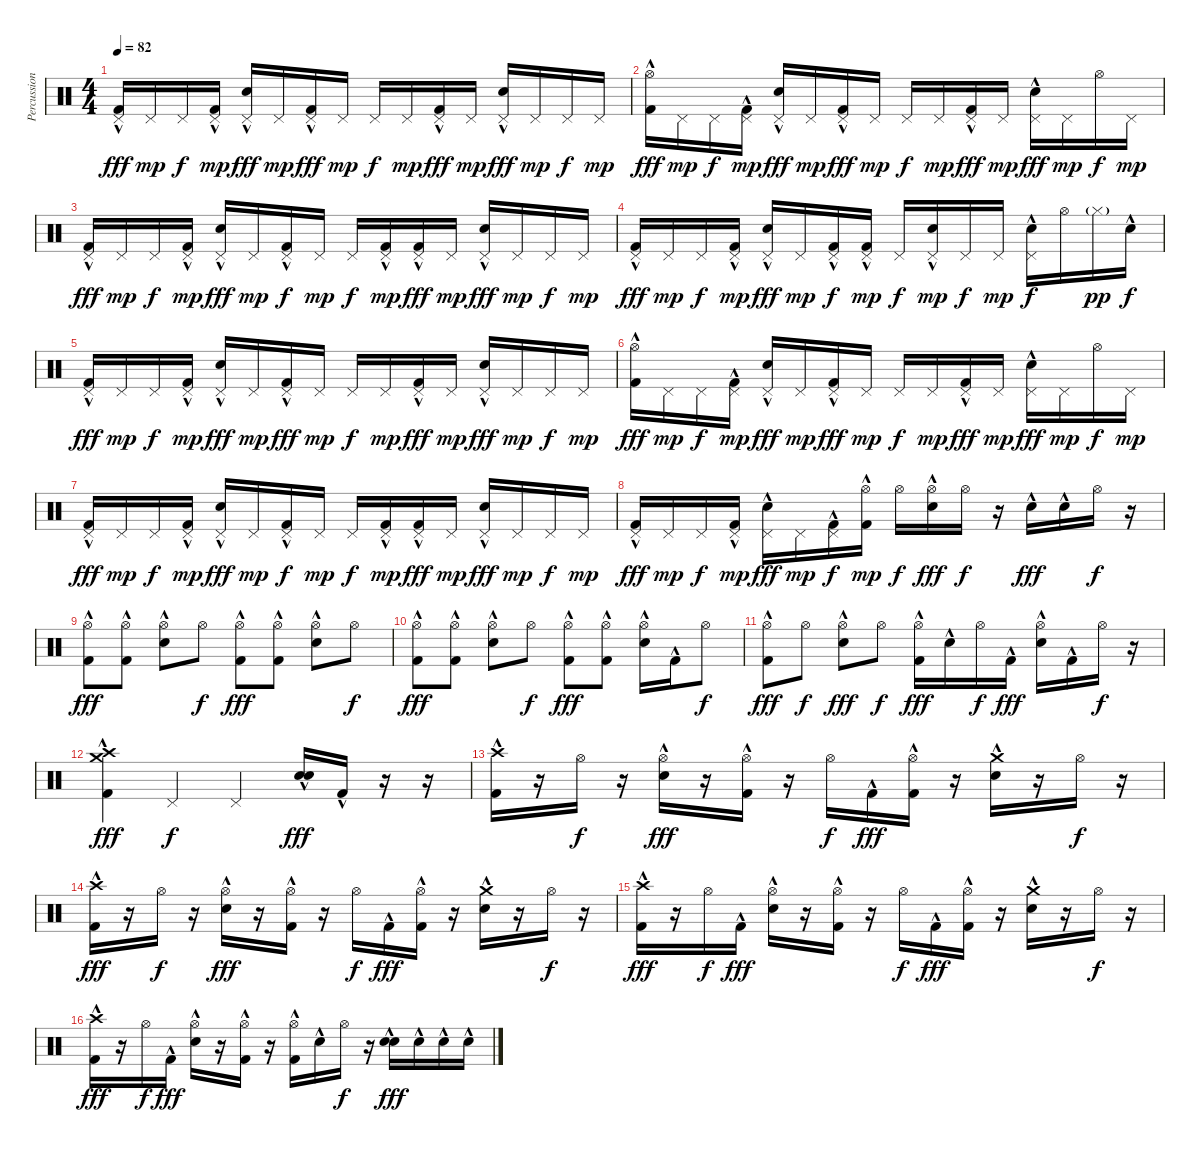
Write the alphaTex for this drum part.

\track ("Percussion" "Percussion") {instrument percussion}
\staff {score}
\articulation defaults
\ts (4 4)
\tempo 82
\clef neutral
\ks c
("Kick (hit) 2"{hac} "Pedal Hi-Hat (hit)").16{dy fff} "Pedal Hi-Hat (hit)".16{dy mp} "Pedal Hi-Hat (hit)".16{dy f} ("Kick (hit) 2"{hac} "Pedal Hi-Hat (hit)").16{dy mp} ("Electric Snare (hit)"{hac} "Pedal Hi-Hat (hit)").16{dy fff} "Pedal Hi-Hat (hit)".16{dy mp} ("Kick (hit) 2"{hac} "Pedal Hi-Hat (hit)").16{dy fff} "Pedal Hi-Hat (hit)".16{dy mp} "Pedal Hi-Hat (hit)".16{dy f} "Pedal Hi-Hat (hit)".16{dy mp} ("Kick (hit) 2"{hac} "Pedal Hi-Hat (hit)").16{dy fff} "Pedal Hi-Hat (hit)".16{dy mp} ("Electric Snare (hit)"{hac} "Pedal Hi-Hat (hit)").16{dy fff} "Pedal Hi-Hat (hit)".16{dy mp} "Pedal Hi-Hat (hit)".16{dy f} "Pedal Hi-Hat (hit)".16{dy mp} |
("Kick (hit) 2"{hac} "Hi-Hat (open)").16{dy fff} "Pedal Hi-Hat (hit)".16{dy mp} "Pedal Hi-Hat (hit)".16{dy f} ("Kick (hit) 2"{hac} "Pedal Hi-Hat (hit)").16{dy mp} ("Electric Snare (hit)"{hac} "Pedal Hi-Hat (hit)").16{dy fff} "Pedal Hi-Hat (hit)".16{dy mp} ("Kick (hit) 2"{hac} "Pedal Hi-Hat (hit)").16{dy fff} "Pedal Hi-Hat (hit)".16{dy mp} "Pedal Hi-Hat (hit)".16{dy f} "Pedal Hi-Hat (hit)".16{dy mp} ("Kick (hit) 2"{hac} "Pedal Hi-Hat (hit)").16{dy fff} "Pedal Hi-Hat (hit)".16{dy mp} ("Electric Snare (hit)"{hac} "Pedal Hi-Hat (hit)").16{dy fff} "Pedal Hi-Hat (hit)".16{dy mp} "Hi-Hat (open)".16{dy f} "Pedal Hi-Hat (hit)".16{dy mp} |
("Kick (hit) 2"{hac} "Pedal Hi-Hat (hit)").16{dy fff} "Pedal Hi-Hat (hit)".16{dy mp} "Pedal Hi-Hat (hit)".16{dy f} ("Kick (hit) 2"{hac} "Pedal Hi-Hat (hit)").16{dy mp} ("Electric Snare (hit)"{hac} "Pedal Hi-Hat (hit)").16{dy fff} "Pedal Hi-Hat (hit)".16{dy mp} ("Kick (hit) 2"{hac} "Pedal Hi-Hat (hit)").16{dy f} "Pedal Hi-Hat (hit)".16{dy mp} "Pedal Hi-Hat (hit)".16{dy f} ("Kick (hit) 2"{hac} "Pedal Hi-Hat (hit)").16{dy mp} ("Kick (hit) 2"{hac} "Pedal Hi-Hat (hit)").16{dy fff} "Pedal Hi-Hat (hit)".16{dy mp} ("Electric Snare (hit)"{hac} "Pedal Hi-Hat (hit)").16{dy fff} "Pedal Hi-Hat (hit)".16{dy mp} "Pedal Hi-Hat (hit)".16{dy f} "Pedal Hi-Hat (hit)".16{dy mp} |
("Kick (hit) 2"{hac} "Pedal Hi-Hat (hit)").16{dy fff} "Pedal Hi-Hat (hit)".16{dy mp} "Pedal Hi-Hat (hit)".16{dy f} ("Kick (hit) 2"{hac} "Pedal Hi-Hat (hit)").16{dy mp} ("Electric Snare (hit)"{hac} "Pedal Hi-Hat (hit)").16{dy fff} "Pedal Hi-Hat (hit)".16{dy mp} ("Kick (hit) 2"{hac} "Pedal Hi-Hat (hit)").16{dy f} ("Kick (hit) 2"{hac} "Pedal Hi-Hat (hit)").16{dy mp} "Pedal Hi-Hat (hit)".16{dy f} ("Electric Snare (hit)"{hac} "Pedal Hi-Hat (hit)").16{dy mp} "Pedal Hi-Hat (hit)".16{dy f} "Pedal Hi-Hat (hit)".16{dy mp} ("Electric Snare (hit)"{hac} "Pedal Hi-Hat (hit)").16{dy f} "Hi-Hat (open)".16 "Hi-Hat (closed)"{g}.16{dy pp} "Electric Snare (hit)"{hac}.16{dy f} |
("Kick (hit) 2"{hac} "Pedal Hi-Hat (hit)").16{dy fff} "Pedal Hi-Hat (hit)".16{dy mp} "Pedal Hi-Hat (hit)".16{dy f} ("Kick (hit) 2"{hac} "Pedal Hi-Hat (hit)").16{dy mp} ("Electric Snare (hit)"{hac} "Pedal Hi-Hat (hit)").16{dy fff} "Pedal Hi-Hat (hit)".16{dy mp} ("Kick (hit) 2"{hac} "Pedal Hi-Hat (hit)").16{dy fff} "Pedal Hi-Hat (hit)".16{dy mp} "Pedal Hi-Hat (hit)".16{dy f} "Pedal Hi-Hat (hit)".16{dy mp} ("Kick (hit) 2"{hac} "Pedal Hi-Hat (hit)").16{dy fff} "Pedal Hi-Hat (hit)".16{dy mp} ("Electric Snare (hit)"{hac} "Pedal Hi-Hat (hit)").16{dy fff} "Pedal Hi-Hat (hit)".16{dy mp} "Pedal Hi-Hat (hit)".16{dy f} "Pedal Hi-Hat (hit)".16{dy mp} |
("Kick (hit) 2"{hac} "Hi-Hat (open)").16{dy fff} "Pedal Hi-Hat (hit)".16{dy mp} "Pedal Hi-Hat (hit)".16{dy f} ("Kick (hit) 2"{hac} "Pedal Hi-Hat (hit)").16{dy mp} ("Electric Snare (hit)"{hac} "Pedal Hi-Hat (hit)").16{dy fff} "Pedal Hi-Hat (hit)".16{dy mp} ("Kick (hit) 2"{hac} "Pedal Hi-Hat (hit)").16{dy fff} "Pedal Hi-Hat (hit)".16{dy mp} "Pedal Hi-Hat (hit)".16{dy f} "Pedal Hi-Hat (hit)".16{dy mp} ("Kick (hit) 2"{hac} "Pedal Hi-Hat (hit)").16{dy fff} "Pedal Hi-Hat (hit)".16{dy mp} ("Electric Snare (hit)"{hac} "Pedal Hi-Hat (hit)").16{dy fff} "Pedal Hi-Hat (hit)".16{dy mp} "Hi-Hat (open)".16{dy f} "Pedal Hi-Hat (hit)".16{dy mp} |
("Kick (hit) 2"{hac} "Pedal Hi-Hat (hit)").16{dy fff} "Pedal Hi-Hat (hit)".16{dy mp} "Pedal Hi-Hat (hit)".16{dy f} ("Kick (hit) 2"{hac} "Pedal Hi-Hat (hit)").16{dy mp} ("Electric Snare (hit)"{hac} "Pedal Hi-Hat (hit)").16{dy fff} "Pedal Hi-Hat (hit)".16{dy mp} ("Kick (hit) 2"{hac} "Pedal Hi-Hat (hit)").16{dy f} "Pedal Hi-Hat (hit)".16{dy mp} "Pedal Hi-Hat (hit)".16{dy f} ("Kick (hit) 2"{hac} "Pedal Hi-Hat (hit)").16{dy mp} ("Kick (hit) 2"{hac} "Pedal Hi-Hat (hit)").16{dy fff} "Pedal Hi-Hat (hit)".16{dy mp} ("Electric Snare (hit)"{hac} "Pedal Hi-Hat (hit)").16{dy fff} "Pedal Hi-Hat (hit)".16{dy mp} "Pedal Hi-Hat (hit)".16{dy f} "Pedal Hi-Hat (hit)".16{dy mp} |
("Kick (hit) 2"{hac} "Pedal Hi-Hat (hit)").16{dy fff} "Pedal Hi-Hat (hit)".16{dy mp} "Pedal Hi-Hat (hit)".16{dy f} ("Kick (hit) 2"{hac} "Pedal Hi-Hat (hit)").16{dy mp} ("Electric Snare (hit)"{hac} "Pedal Hi-Hat (hit)").16{dy fff} "Pedal Hi-Hat (hit)".16{dy mp} ("Kick (hit) 2"{hac} "Pedal Hi-Hat (hit)").16{dy f} ("Kick (hit) 2"{hac} "Hi-Hat (open)").16{dy mp} "Hi-Hat (open)".16{dy f} ("Electric Snare (hit)"{hac} "Hi-Hat (open)").16{dy fff} "Hi-Hat (open)".16{dy f} r.16 "Electric Snare (hit)"{hac}.16{dy fff} "Electric Snare (hit)"{hac}.16 "Hi-Hat (open)".16{dy f} r.16 |
("Kick (hit) 2"{hac} "Hi-Hat (open)").8{dy fff} ("Kick (hit) 2"{hac} "Hi-Hat (open)").8 ("Electric Snare (hit)"{hac} "Hi-Hat (open)").8 "Hi-Hat (open)".8{dy f} ("Kick (hit) 2"{hac} "Hi-Hat (open)").8{dy fff} ("Kick (hit) 2"{hac} "Hi-Hat (open)").8 ("Electric Snare (hit)"{hac} "Hi-Hat (open)").8 "Hi-Hat (open)".8{dy f} |
("Kick (hit) 2"{hac} "Hi-Hat (open)").8{dy fff} ("Kick (hit) 2"{hac} "Hi-Hat (open)").8 ("Electric Snare (hit)"{hac} "Hi-Hat (open)").8 "Hi-Hat (open)".8{dy f} ("Kick (hit) 2"{hac} "Hi-Hat (open)").8{dy fff} ("Kick (hit) 2"{hac} "Hi-Hat (open)").8 ("Electric Snare (hit)"{hac} "Hi-Hat (open)").16 "Kick (hit) 2"{hac}.16 "Hi-Hat (open)".8{dy f} |
("Kick (hit) 2"{hac} "Hi-Hat (open)").8{dy fff} "Hi-Hat (open)".8{dy f} ("Electric Snare (hit)"{hac} "Hi-Hat (open)").8{dy fff} "Hi-Hat (open)".8{dy f} ("Kick (hit) 2"{hac} "Hi-Hat (open)").16{dy fff} "Electric Snare (hit)"{hac}.16 "Hi-Hat (open)".16{dy f} "Kick (hit) 2"{hac}.16{dy fff} ("Electric Snare (hit)"{hac} "Hi-Hat (open)").16 "Kick (hit) 2"{hac}.16 "Hi-Hat (open)".16{dy f} r.16 |
("Kick (hit) 2"{hac} "Crash high (hit)" "Crash medium (hit)").4{dy fff} "Pedal Hi-Hat (hit)".4{dy f} "Pedal Hi-Hat (hit)".4 ("Electric Snare (hit)"{hac} "Electric Snare (hit)"{hac}).16{bd 240 dy fff} "Kick (hit) 2"{hac}.16 r.16 r.16 |
("Kick (hit) 2"{hac} "Crash high (hit)").16 r.16 "Hi-Hat (open)".16{dy f} r.16 ("Electric Snare (hit)"{hac} "Hi-Hat (open)").16{dy fff} r.16 ("Kick (hit) 2"{hac} "Hi-Hat (open)").16 r.16 "Hi-Hat (open)".16{dy f} "Kick (hit) 2"{hac}.16{dy fff} ("Kick (hit) 2"{hac} "Hi-Hat (open)").16 r.16 ("Electric Snare (hit)"{hac} "Crash medium (hit)").16 r.16 "Hi-Hat (open)".16{dy f} r.16 |
("Kick (hit) 2"{hac} "Crash high (hit)").16{dy fff} r.16 "Hi-Hat (open)".16{dy f} r.16 ("Electric Snare (hit)"{hac} "Hi-Hat (open)").16{dy fff} r.16 ("Kick (hit) 2"{hac} "Hi-Hat (open)").16 r.16 "Hi-Hat (open)".16{dy f} "Kick (hit) 2"{hac}.16{dy fff} ("Kick (hit) 2"{hac} "Hi-Hat (open)").16 r.16 ("Electric Snare (hit)"{hac} "Crash medium (hit)").16 r.16 "Hi-Hat (open)".16{dy f} r.16 |
("Kick (hit) 2"{hac} "Crash high (hit)").16{dy fff} r.16 "Hi-Hat (open)".16{dy f} "Kick (hit) 2"{hac}.16{dy fff} ("Electric Snare (hit)"{hac} "Hi-Hat (open)").16 r.16 ("Kick (hit) 2"{hac} "Hi-Hat (open)").16 r.16 "Hi-Hat (open)".16{dy f} "Kick (hit) 2"{hac}.16{dy fff} ("Kick (hit) 2"{hac} "Hi-Hat (open)").16 r.16 ("Electric Snare (hit)"{hac} "Crash medium (hit)").16 r.16 "Hi-Hat (open)".16{dy f} r.16 |
("Kick (hit) 2"{hac} "Crash high (hit)").16{dy fff} r.16 "Hi-Hat (open)".16{dy f} "Kick (hit) 2"{hac}.16{dy fff} ("Electric Snare (hit)"{hac} "Hi-Hat (open)").16 r.16 ("Kick (hit) 2"{hac} "Hi-Hat (open)").16 r.16 ("Kick (hit) 2"{hac} "Hi-Hat (open)").16 "Electric Snare (hit)"{hac}.16 "Hi-Hat (open)".16{dy f} r.16 ("Electric Snare (hit)"{hac} "Electric Snare (hit)"{hac}).16{bd 240 dy fff} "Electric Snare (hit)"{hac}.16 "Electric Snare (hit)"{hac}.16 "Electric Snare (hit)"{hac}.16
